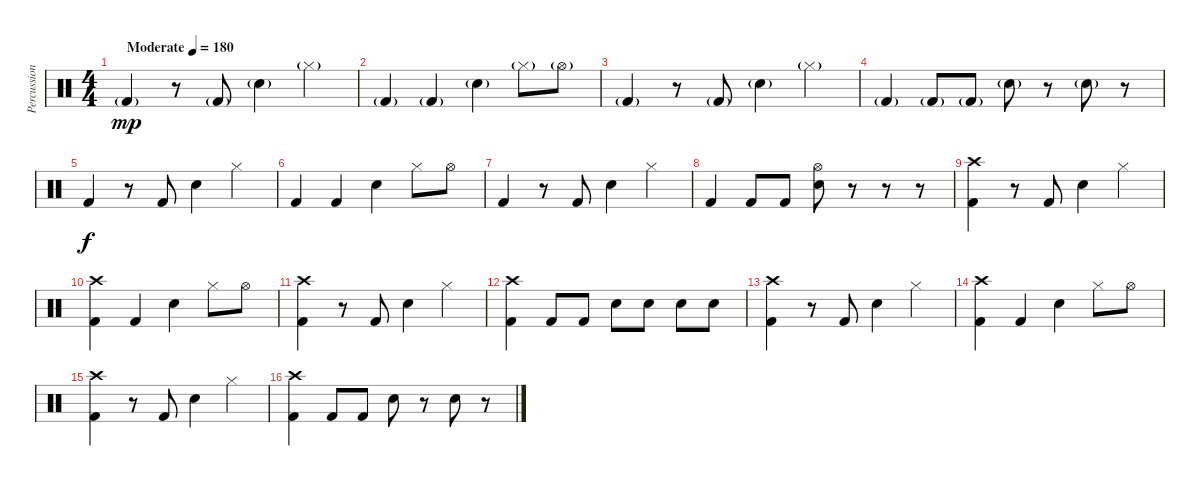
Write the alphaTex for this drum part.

\track ("Percussion" "Percussion") {instrument percussion}
\staff {score}
\articulation defaults
\ts (4 4)
\tempo (180 "Moderate")
\clef neutral
\ks c "Kick (hit) 2"{g}.4{dy mp}
r.8 "Kick (hit) 2"{g}.8 "Electric Snare (hit)"{g}.4 "Hi-Hat (closed)"{g}.4 |
"Kick (hit) 2"{g}.4 "Kick (hit) 2"{g}.4 "Electric Snare (hit)"{g}.4 "Hi-Hat (closed)"{g}.8 "Hi-Hat (open)"{g}.8 |
"Kick (hit) 2"{g}.4 r.8 "Kick (hit) 2"{g}.8 "Electric Snare (hit)"{g}.4 "Hi-Hat (closed)"{g}.4 |
"Kick (hit) 2"{g}.4 "Kick (hit) 2"{g}.8 "Kick (hit) 2"{g}.8 "Electric Snare (hit)"{g}.8 r.8 "Electric Snare (hit)"{g}.8 r.8 |
"Kick (hit) 2".4{dy f} r.8 "Kick (hit) 2".8 "Electric Snare (hit)".4 "Hi-Hat (closed)".4 |
"Kick (hit) 2".4 "Kick (hit) 2".4 "Electric Snare (hit)".4 "Hi-Hat (closed)".8 "Hi-Hat (open)".8 |
"Kick (hit) 2".4 r.8 "Kick (hit) 2".8 "Electric Snare (hit)".4 "Hi-Hat (closed)".4 |
"Kick (hit) 2".4 "Kick (hit) 2".8 "Kick (hit) 2".8 ("Hi-Hat (open)" "Electric Snare (hit)").8 r.8 r.8 r.8 |
("Crash high (hit)" "Kick (hit) 2").4 r.8 "Kick (hit) 2".8 "Electric Snare (hit)".4 "Hi-Hat (closed)".4 |
("Crash high (hit)" "Kick (hit) 2").4 "Kick (hit) 2".4 "Electric Snare (hit)".4 "Hi-Hat (closed)".8 "Hi-Hat (open)".8 |
("Crash high (hit)" "Kick (hit) 2").4 r.8 "Kick (hit) 2".8 "Electric Snare (hit)".4 "Hi-Hat (closed)".4 |
("Crash high (hit)" "Kick (hit) 2").4 "Kick (hit) 2".8 "Kick (hit) 2".8 "Electric Snare (hit)".8 "Electric Snare (hit)".8 "Electric Snare (hit)".8 "Electric Snare (hit)".8 |
("Crash high (hit)" "Kick (hit) 2").4 r.8 "Kick (hit) 2".8 "Electric Snare (hit)".4 "Hi-Hat (closed)".4 |
("Crash high (hit)" "Kick (hit) 2").4 "Kick (hit) 2".4 "Electric Snare (hit)".4 "Hi-Hat (closed)".8 "Hi-Hat (open)".8 |
("Crash high (hit)" "Kick (hit) 2").4 r.8 "Kick (hit) 2".8 "Electric Snare (hit)".4 "Hi-Hat (closed)".4 |
("Crash high (hit)" "Kick (hit) 2").4 "Kick (hit) 2".8 "Kick (hit) 2".8 "Electric Snare (hit)".8 r.8 "Electric Snare (hit)".8 r.8
